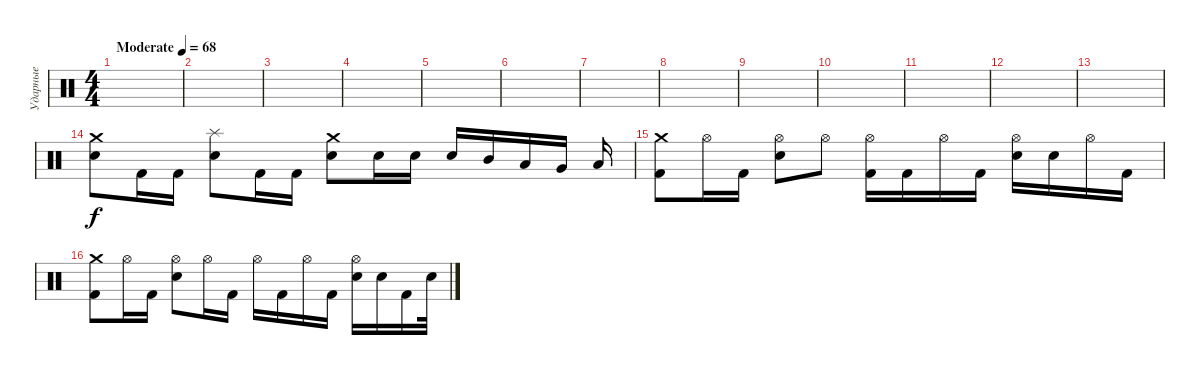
\track ("Ударные" "Ударные") {instrument percussion}
\staff {score}
\articulation defaults
\ts (4 4)
\tempo (68 "Moderate")
\clef neutral
\ks c
|
|
|
|
|
|
|
|
|
|
|
|
|
("Crash medium (hit)" "Snare (hit) 2").8 "Kick (hit) 2".16 "Kick (hit) 2".16 ("Splash (hit)" "Snare (hit) 2").8 "Kick (hit) 2".16 "Kick (hit) 2".16 ("Crash medium (hit)" "Snare (hit) 2").8 "Snare (hit) 2".16 "Snare (hit) 2".16 "Snare (hit) 2".16 "Mid Tom (hit)".16 "Low Tom (hit)".16 "Very Low Tom (hit)".16 "Low Floor Tom (hit)".16 |
("Crash medium (hit)" "Kick (hit) 2").8 "Hi-Hat (open)".16 "Kick (hit) 2".16 ("Hi-Hat (open)" "Snare (hit) 2").8 "Hi-Hat (open)".8 ("Hi-Hat (open)" "Kick (hit) 2").16 "Kick (hit) 2".16 "Hi-Hat (open)".16 "Kick (hit) 2".16 ("Snare (hit) 2" "Hi-Hat (open)").16 "Snare (hit) 2".16 "Hi-Hat (open)".16 "Kick (hit) 2".16 |
("Crash medium (hit)" "Kick (hit) 2").8 "Hi-Hat (open)".16 "Kick (hit) 2".16 ("Hi-Hat (open)" "Snare (hit) 2").8 "Hi-Hat (open)".16 "Kick (hit) 2".16 "Hi-Hat (open)".16 "Kick (hit) 2".16 "Hi-Hat (open)".16 "Kick (hit) 2".16 ("Snare (hit) 2" "Hi-Hat (open)").16 "Snare (hit) 2".16 "Kick (hit) 2".16 "Snare (hit) 2".32
